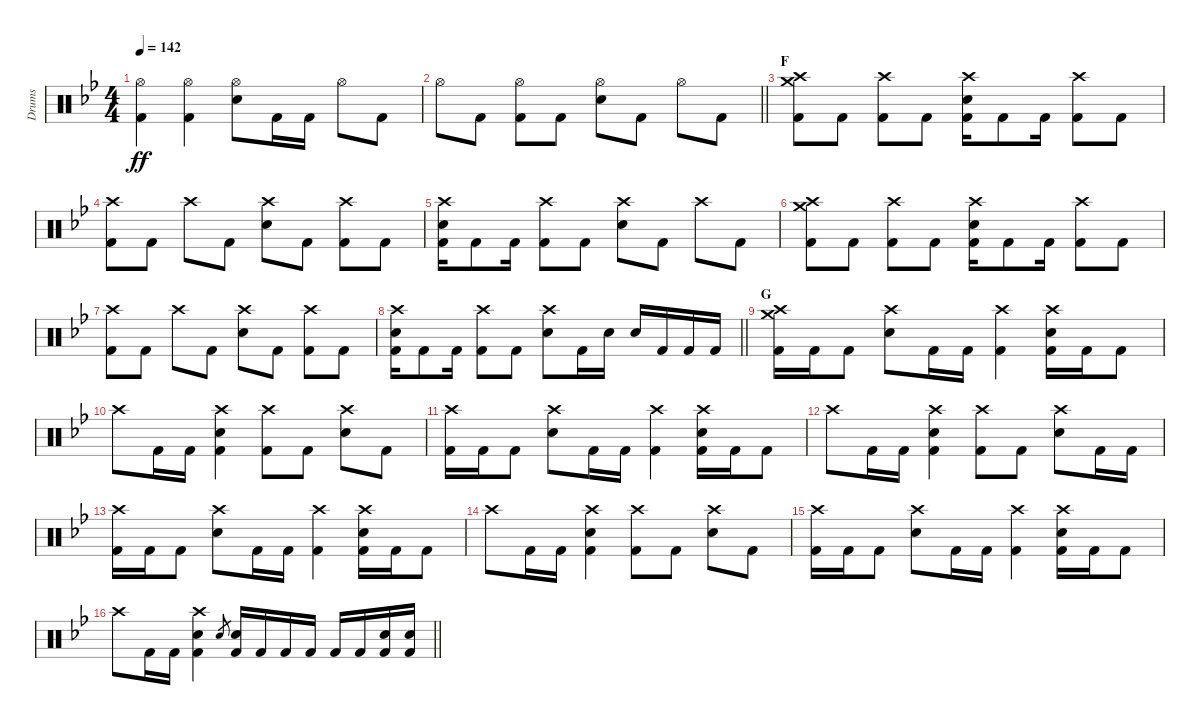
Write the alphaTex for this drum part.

\track ("Drums" "Drums") {instrument percussion}
\staff {score}
\articulation defaults
\ts (4 4)
\tempo 142
\clef neutral
\ks gminor
("Hi-Hat (open)" "Kick (hit) 2").4{dy ff} ("Hi-Hat (open)" "Kick (hit) 2").4 ("Hi-Hat (open)" "Electric Snare (hit)").8 "Kick (hit) 2".16 "Kick (hit) 2".16 "Hi-Hat (open)".8 "Kick (hit) 2".8 |
\barLineRight lightlight "Hi-Hat (open)".8 "Kick (hit) 2".8
("Hi-Hat (open)" "Kick (hit) 2").8 "Kick (hit) 2".8 ("Hi-Hat (open)" "Electric Snare (hit)").8 "Kick (hit) 2".8 "Hi-Hat (open)".8 "Kick (hit) 2".8 |
\section ("" "F")
("Crash medium (hit)" "Crash high (hit)" "Kick (hit) 2").8 "Kick (hit) 2".8 ("Crash high (hit)" "Kick (hit) 2").8 "Kick (hit) 2".8 ("Crash high (hit)" "Electric Snare (hit)" "Kick (hit) 2").16 "Kick (hit) 2".8 "Kick (hit) 2".16 ("Crash high (hit)" "Kick (hit) 2").8 "Kick (hit) 2".8 |
("Crash high (hit)" "Kick (hit) 2").8 "Kick (hit) 2".8 "Crash high (hit)".8 "Kick (hit) 2".8 ("Crash high (hit)" "Electric Snare (hit)").8 "Kick (hit) 2".8 ("Crash high (hit)" "Kick (hit) 2").8 "Kick (hit) 2".8 |
("Crash high (hit)" "Electric Snare (hit)" "Kick (hit) 2").16 "Kick (hit) 2".8 "Kick (hit) 2".16 ("Crash high (hit)" "Kick (hit) 2").8 "Kick (hit) 2".8 ("Crash high (hit)" "Electric Snare (hit)").8 "Kick (hit) 2".8 "Crash high (hit)".8 "Kick (hit) 2".8 |
("Crash medium (hit)" "Crash high (hit)" "Kick (hit) 2").8 "Kick (hit) 2".8 ("Crash high (hit)" "Kick (hit) 2").8 "Kick (hit) 2".8 ("Crash high (hit)" "Electric Snare (hit)" "Kick (hit) 2").16 "Kick (hit) 2".8 "Kick (hit) 2".16 ("Crash high (hit)" "Kick (hit) 2").8 "Kick (hit) 2".8 |
("Crash high (hit)" "Kick (hit) 2").8 "Kick (hit) 2".8 "Crash high (hit)".8 "Kick (hit) 2".8 ("Crash high (hit)" "Electric Snare (hit)").8 "Kick (hit) 2".8 ("Crash high (hit)" "Kick (hit) 2").8 "Kick (hit) 2".8 |
\barLineRight lightlight
("Crash high (hit)" "Electric Snare (hit)" "Kick (hit) 2").16 "Kick (hit) 2".8 "Kick (hit) 2".16 ("Crash high (hit)" "Kick (hit) 2").8 "Kick (hit) 2".8 ("Crash high (hit)" "Electric Snare (hit)").8 "Kick (hit) 2".16 "Electric Snare (hit)".16 "Electric Snare (hit)".16 "Kick (hit) 2".16 "Kick (hit) 2".16 "Kick (hit) 2".16 |
\section ("" "G")
("Crash medium (hit)" "Crash high (hit)" "Kick (hit) 2").16 "Kick (hit) 2".16 "Kick (hit) 2".8 ("Crash high (hit)" "Electric Snare (hit)").8 "Kick (hit) 2".16 "Kick (hit) 2".16 ("Crash high (hit)" "Kick (hit) 2").4 ("Crash high (hit)" "Electric Snare (hit)" "Kick (hit) 2").16 "Kick (hit) 2".16 "Kick (hit) 2".8 |
"Crash high (hit)".8 "Kick (hit) 2".16 "Kick (hit) 2".16 ("Crash high (hit)" "Electric Snare (hit)" "Kick (hit) 2").4 ("Crash high (hit)" "Kick (hit) 2").8 "Kick (hit) 2".8 ("Crash high (hit)" "Electric Snare (hit)").8 "Kick (hit) 2".8 |
("Crash high (hit)" "Kick (hit) 2").16 "Kick (hit) 2".16 "Kick (hit) 2".8 ("Crash high (hit)" "Electric Snare (hit)").8 "Kick (hit) 2".16 "Kick (hit) 2".16 ("Crash high (hit)" "Kick (hit) 2").4 ("Crash high (hit)" "Electric Snare (hit)" "Kick (hit) 2").16 "Kick (hit) 2".16 "Kick (hit) 2".8 |
"Crash high (hit)".8 "Kick (hit) 2".16 "Kick (hit) 2".16 ("Crash high (hit)" "Electric Snare (hit)" "Kick (hit) 2").4 ("Crash high (hit)" "Kick (hit) 2").8 "Kick (hit) 2".8 ("Crash high (hit)" "Electric Snare (hit)").8 "Kick (hit) 2".16 "Kick (hit) 2".16 |
("Crash high (hit)" "Kick (hit) 2").16 "Kick (hit) 2".16 "Kick (hit) 2".8 ("Crash high (hit)" "Electric Snare (hit)").8 "Kick (hit) 2".16 "Kick (hit) 2".16 ("Crash high (hit)" "Kick (hit) 2").4 ("Crash high (hit)" "Electric Snare (hit)" "Kick (hit) 2").16 "Kick (hit) 2".16 "Kick (hit) 2".8 |
"Crash high (hit)".8 "Kick (hit) 2".16 "Kick (hit) 2".16 ("Crash high (hit)" "Electric Snare (hit)" "Kick (hit) 2").4 ("Crash high (hit)" "Kick (hit) 2").8 "Kick (hit) 2".8 ("Crash high (hit)" "Electric Snare (hit)").8 "Kick (hit) 2".8 |
("Crash high (hit)" "Kick (hit) 2").16 "Kick (hit) 2".16 "Kick (hit) 2".8 ("Crash high (hit)" "Electric Snare (hit)").8 "Kick (hit) 2".16 "Kick (hit) 2".16 ("Crash high (hit)" "Kick (hit) 2").4 ("Crash high (hit)" "Electric Snare (hit)" "Kick (hit) 2").16 "Kick (hit) 2".16 "Kick (hit) 2".8 |
\barLineRight lightlight "Crash high (hit)".8 "Kick (hit) 2".16 "Kick (hit) 2".16
("Crash high (hit)" "Electric Snare (hit)" "Kick (hit) 2").4 "Electric Snare (hit)".8{gr} ("Electric Snare (hit)" "Kick (hit) 2").16 "Kick (hit) 2".16 "Kick (hit) 2".16 "Kick (hit) 2".16 "Kick (hit) 2".16 "Kick (hit) 2".16 ("Electric Snare (hit)" "Kick (hit) 2").16 ("Electric Snare (hit)" "Kick (hit) 2").16
